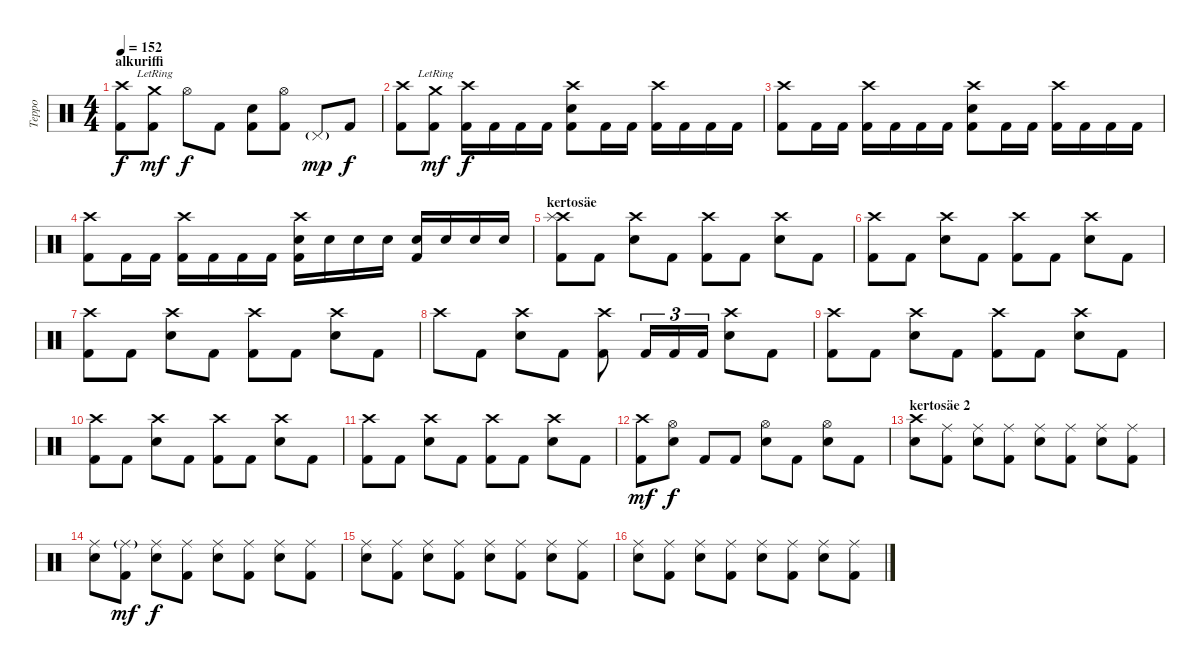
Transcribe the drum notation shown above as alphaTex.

\track ("Teppo" "Teppo") {instrument percussion}
\staff {score}
\articulation defaults
\ts (4 4)
\section ("" "alkuriffi")
\tempo 152
\clef neutral
\ks c
("Crash high (hit)" "Kick (hit) 2").8{dy f} ("Crash medium (hit)"{lr} "Kick (hit) 2").8{dy mf} "Hi-Hat (open)".8{dy f} "Kick (hit) 2".8 ("Electric Snare (hit)" "Kick (hit) 2").8 ("Hi-Hat (open)" "Kick (hit) 2").8 "Pedal Hi-Hat (hit)"{g}.8{dy mp} "Kick (hit) 2".8{dy f} |
("Crash high (hit)" "Kick (hit) 2").8 ("Crash medium (hit)"{lr} "Kick (hit) 2").8{dy mf} ("Crash high (hit)" "Kick (hit) 2").16{dy f} "Kick (hit) 2".16 "Kick (hit) 2".16 "Kick (hit) 2".16 ("Crash high (hit)" "Electric Snare (hit)" "Kick (hit) 2").8 "Kick (hit) 2".16 "Kick (hit) 2".16 ("Crash high (hit)" "Kick (hit) 2").16 "Kick (hit) 2".16 "Kick (hit) 2".16 "Kick (hit) 2".16 |
("Crash high (hit)" "Kick (hit) 2").8 "Kick (hit) 2".16 "Kick (hit) 2".16 ("Crash high (hit)" "Kick (hit) 2").16 "Kick (hit) 2".16 "Kick (hit) 2".16 "Kick (hit) 2".16 ("Crash high (hit)" "Electric Snare (hit)" "Kick (hit) 2").8 "Kick (hit) 2".16 "Kick (hit) 2".16 ("Crash high (hit)" "Kick (hit) 2").16 "Kick (hit) 2".16 "Kick (hit) 2".16 "Kick (hit) 2".16 |
("Crash high (hit)" "Kick (hit) 2").8 "Kick (hit) 2".16 "Kick (hit) 2".16 ("Crash high (hit)" "Kick (hit) 2").16 "Kick (hit) 2".16 "Kick (hit) 2".16 "Kick (hit) 2".16 ("Crash high (hit)" "Electric Snare (hit)" "Kick (hit) 2").16 "Electric Snare (hit)".16 "Electric Snare (hit)".16 "Electric Snare (hit)".16 ("Electric Snare (hit)" "Kick (hit) 2").16 "Electric Snare (hit)".16 "Electric Snare (hit)".16 "Electric Snare (hit)".16 |
\section ("" "kertosäe")
("Crash high (hit)" "Splash (hit)" "Kick (hit) 2").8 "Kick (hit) 2".8 ("Crash high (hit)" "Electric Snare (hit)").8 "Kick (hit) 2".8 ("Crash high (hit)" "Kick (hit) 2").8 "Kick (hit) 2".8 ("Crash high (hit)" "Electric Snare (hit)").8 "Kick (hit) 2".8 |
("Crash high (hit)" "Kick (hit) 2").8 "Kick (hit) 2".8 ("Crash high (hit)" "Electric Snare (hit)").8 "Kick (hit) 2".8 ("Crash high (hit)" "Kick (hit) 2").8 "Kick (hit) 2".8 ("Crash high (hit)" "Electric Snare (hit)").8 "Kick (hit) 2".8 |
("Crash high (hit)" "Kick (hit) 2").8 "Kick (hit) 2".8 ("Crash high (hit)" "Electric Snare (hit)").8 "Kick (hit) 2".8 ("Crash high (hit)" "Kick (hit) 2").8 "Kick (hit) 2".8 ("Crash high (hit)" "Electric Snare (hit)").8 "Kick (hit) 2".8 |
"Crash high (hit)".8 "Kick (hit) 2".8 ("Crash high (hit)" "Electric Snare (hit)").8 "Kick (hit) 2".8 ("Crash high (hit)" "Kick (hit) 2").8 "Kick (hit) 2".16{tu (3 2)} "Kick (hit) 2".16{tu (3 2)} "Kick (hit) 2".16{tu (3 2)} ("Crash high (hit)" "Electric Snare (hit)").8 "Kick (hit) 2".8 |
("Crash high (hit)" "Kick (hit) 2").8 "Kick (hit) 2".8 ("Crash high (hit)" "Electric Snare (hit)").8 "Kick (hit) 2".8 ("Crash high (hit)" "Kick (hit) 2").8 "Kick (hit) 2".8 ("Crash high (hit)" "Electric Snare (hit)").8 "Kick (hit) 2".8 |
("Crash high (hit)" "Kick (hit) 2").8 "Kick (hit) 2".8 ("Crash high (hit)" "Electric Snare (hit)").8 "Kick (hit) 2".8 ("Crash high (hit)" "Kick (hit) 2").8 "Kick (hit) 2".8 ("Crash high (hit)" "Electric Snare (hit)").8 "Kick (hit) 2".8 |
("Crash high (hit)" "Kick (hit) 2").8 "Kick (hit) 2".8 ("Crash high (hit)" "Electric Snare (hit)").8 "Kick (hit) 2".8 ("Crash high (hit)" "Kick (hit) 2").8 "Kick (hit) 2".8 ("Crash high (hit)" "Electric Snare (hit)").8 "Kick (hit) 2".8 |
("Crash high (hit)" "Kick (hit) 2").8{dy mf} ("Hi-Hat (open)" "Electric Snare (hit)").8{dy f} "Kick (hit) 2".8 "Kick (hit) 2".8 ("Hi-Hat (open)" "Electric Snare (hit)").8 "Kick (hit) 2".8 ("Hi-Hat (open)" "Electric Snare (hit)").8 "Kick (hit) 2".8 |
\section ("" "kertosäe 2")
("Crash high (hit)" "Electric Snare (hit)").8 ("Ride (middle)" "Kick (hit) 2").8 ("Ride (middle)" "Electric Snare (hit)").8 ("Ride (middle)" "Kick (hit) 2").8 ("Ride (middle)" "Electric Snare (hit)").8 ("Ride (middle)" "Kick (hit) 2").8 ("Ride (middle)" "Electric Snare (hit)").8 ("Ride (middle)" "Kick (hit) 2").8 |
("Ride (middle)" "Electric Snare (hit)").8 ("Ride (middle)"{g} "Kick (hit) 2").8{dy mf} ("Ride (middle)" "Electric Snare (hit)").8{dy f} ("Ride (middle)" "Kick (hit) 2").8 ("Ride (middle)" "Electric Snare (hit)").8 ("Ride (middle)" "Kick (hit) 2").8 ("Ride (middle)" "Electric Snare (hit)").8 ("Ride (middle)" "Kick (hit) 2").8 |
("Ride (middle)" "Electric Snare (hit)").8 ("Ride (middle)" "Kick (hit) 2").8 ("Ride (middle)" "Electric Snare (hit)").8 ("Ride (middle)" "Kick (hit) 2").8 ("Ride (middle)" "Electric Snare (hit)").8 ("Ride (middle)" "Kick (hit) 2").8 ("Ride (middle)" "Electric Snare (hit)").8 ("Ride (middle)" "Kick (hit) 2").8 |
("Ride (middle)" "Electric Snare (hit)").8 ("Ride (middle)" "Kick (hit) 2").8 ("Ride (middle)" "Electric Snare (hit)").8 ("Ride (middle)" "Kick (hit) 2").8 ("Ride (middle)" "Electric Snare (hit)").8 ("Ride (middle)" "Kick (hit) 2").8 ("Ride (middle)" "Electric Snare (hit)").8 ("Ride (middle)" "Kick (hit) 2").8
